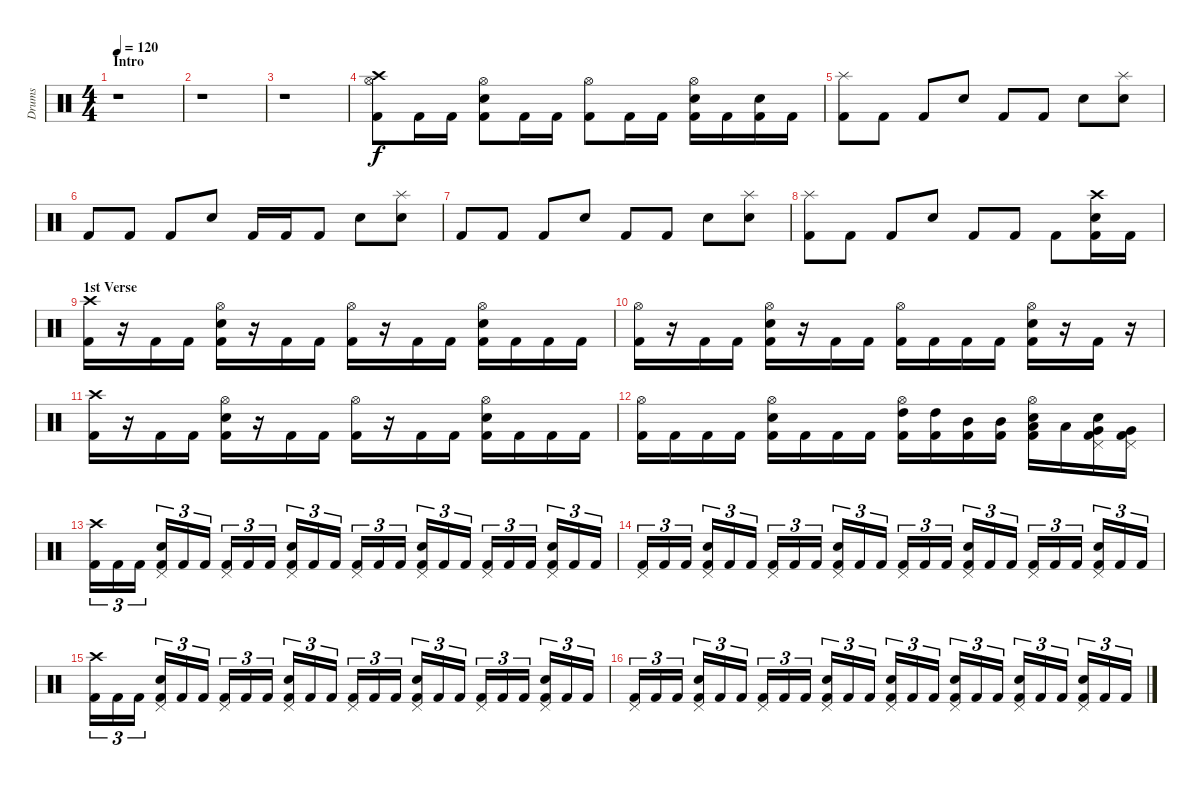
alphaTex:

\track ("Drums" "Drums") {instrument percussion}
\staff {score}
\articulation defaults
\ts (4 4)
\section ("" "Intro")
\tempo 120
\clef neutral
\ks c
r.1{dy f} |
r.1 |
r.1 |
("Crash high (hit)" "Hi-Hat (open)" "Kick (hit) 2").8 "Kick (hit) 2".16 "Kick (hit) 2".16 ("Hi-Hat (open)" "Electric Snare (hit)" "Kick (hit) 2").8 "Kick (hit) 2".16 "Kick (hit) 2".16 ("Hi-Hat (open)" "Kick (hit) 2").8 "Kick (hit) 2".16 "Kick (hit) 2".16 ("Hi-Hat (open)" "Electric Snare (hit)" "Kick (hit) 2").16 "Kick (hit) 2".16 ("Electric Snare (hit)" "Kick (hit) 2").16 "Kick (hit) 2".16 |
("Splash (hit)" "Kick (hit) 2").8 "Kick (hit) 2".8 "Kick (hit) 2".8 "Electric Snare (hit)".8 "Kick (hit) 2".8 "Kick (hit) 2".8 "Electric Snare (hit)".8 ("Splash (hit)" "Electric Snare (hit)").8 |
"Kick (hit) 2".8 "Kick (hit) 2".8 "Kick (hit) 2".8 "Electric Snare (hit)".8 "Kick (hit) 2".16 "Kick (hit) 2".16 "Kick (hit) 2".8 "Electric Snare (hit)".8 ("Splash (hit)" "Electric Snare (hit)").8 |
"Kick (hit) 2".8 "Kick (hit) 2".8 "Kick (hit) 2".8 "Electric Snare (hit)".8 "Kick (hit) 2".8 "Kick (hit) 2".8 "Electric Snare (hit)".8 ("Splash (hit)" "Electric Snare (hit)").8 |
("Splash (hit)" "Kick (hit) 2").8 "Kick (hit) 2".8 "Kick (hit) 2".8 "Electric Snare (hit)".8 "Kick (hit) 2".8 "Kick (hit) 2".8 "Kick (hit) 2".8 ("Crash high (hit)" "Electric Snare (hit)" "Kick (hit) 2").16 "Kick (hit) 2".16 |
\section ("" "1st Verse")
("Crash high (hit)" "Kick (hit) 2").16 r.16 "Kick (hit) 2".16 "Kick (hit) 2".16 ("Hi-Hat (open)" "Electric Snare (hit)" "Kick (hit) 2").16 r.16 "Kick (hit) 2".16 "Kick (hit) 2".16 ("Hi-Hat (open)" "Kick (hit) 2").16 r.16 "Kick (hit) 2".16 "Kick (hit) 2".16 ("Hi-Hat (open)" "Electric Snare (hit)" "Kick (hit) 2").16 "Kick (hit) 2".16 "Kick (hit) 2".16 "Kick (hit) 2".16 |
("Hi-Hat (open)" "Kick (hit) 2").16 r.16 "Kick (hit) 2".16 "Kick (hit) 2".16 ("Hi-Hat (open)" "Electric Snare (hit)" "Kick (hit) 2").16 r.16 "Kick (hit) 2".16 "Kick (hit) 2".16 ("Hi-Hat (open)" "Kick (hit) 2").16 "Kick (hit) 2".16 "Kick (hit) 2".16 "Kick (hit) 2".16 ("Hi-Hat (open)" "Electric Snare (hit)" "Kick (hit) 2").16 r.16 "Kick (hit) 2".16 r.16 |
("Crash high (hit)" "Kick (hit) 2").16 r.16 "Kick (hit) 2".16 "Kick (hit) 2".16 ("Hi-Hat (open)" "Electric Snare (hit)" "Kick (hit) 2").16 r.16 "Kick (hit) 2".16 "Kick (hit) 2".16 ("Hi-Hat (open)" "Kick (hit) 2").16 r.16 "Kick (hit) 2".16 "Kick (hit) 2".16 ("Hi-Hat (open)" "Electric Snare (hit)" "Kick (hit) 2").16 "Kick (hit) 2".16 "Kick (hit) 2".16 "Kick (hit) 2".16 |
("Hi-Hat (open)" "Kick (hit) 2").16 "Kick (hit) 2".16 "Kick (hit) 2".16 "Kick (hit) 2".16 ("Hi-Hat (open)" "Electric Snare (hit)" "Kick (hit) 2").16 "Kick (hit) 2".16 "Kick (hit) 2".16 "Kick (hit) 2".16 ("Hi-Hat (open)" "High Tom (hit)" "Kick (hit) 2").16 ("High Tom (hit)" "Kick (hit) 2").16 ("Mid Tom (hit)" "Kick (hit) 2").16 ("Mid Tom (hit)" "Kick (hit) 2").16 ("Hi-Hat (open)" "Electric Snare (hit)" "Low Tom (hit)" "Kick (hit) 2").16 "Low Tom (hit)".16 ("Pedal Hi-Hat (hit)" "Electric Snare (hit)" "Very Low Tom (hit)" "Kick (hit) 2").16 ("Pedal Hi-Hat (hit)" "Very Low Tom (hit)" "Kick (hit) 2").16 |
("Crash high (hit)" "Kick (hit) 2").16{tu (3 2)} "Kick (hit) 2".16{tu (3 2)} "Kick (hit) 2".16{tu (3 2)} ("Pedal Hi-Hat (hit)" "Electric Snare (hit)" "Kick (hit) 2").16{tu (3 2)} "Kick (hit) 2".16{tu (3 2)} "Kick (hit) 2".16{tu (3 2)} ("Pedal Hi-Hat (hit)" "Kick (hit) 2").16{tu (3 2)} "Kick (hit) 2".16{tu (3 2)} "Kick (hit) 2".16{tu (3 2)} ("Pedal Hi-Hat (hit)" "Electric Snare (hit)" "Kick (hit) 2").16{tu (3 2)} "Kick (hit) 2".16{tu (3 2)} "Kick (hit) 2".16{tu (3 2)} ("Pedal Hi-Hat (hit)" "Kick (hit) 2").16{tu (3 2)} "Kick (hit) 2".16{tu (3 2)} "Kick (hit) 2".16{tu (3 2)} ("Pedal Hi-Hat (hit)" "Electric Snare (hit)" "Kick (hit) 2").16{tu (3 2)} "Kick (hit) 2".16{tu (3 2)} "Kick (hit) 2".16{tu (3 2)} ("Pedal Hi-Hat (hit)" "Kick (hit) 2").16{tu (3 2)} "Kick (hit) 2".16{tu (3 2)} "Kick (hit) 2".16{tu (3 2)} ("Pedal Hi-Hat (hit)" "Electric Snare (hit)" "Kick (hit) 2").16{tu (3 2)} "Kick (hit) 2".16{tu (3 2)} "Kick (hit) 2".16{tu (3 2)} |
("Pedal Hi-Hat (hit)" "Kick (hit) 2").16{tu (3 2)} "Kick (hit) 2".16{tu (3 2)} "Kick (hit) 2".16{tu (3 2)} ("Pedal Hi-Hat (hit)" "Electric Snare (hit)" "Kick (hit) 2").16{tu (3 2)} "Kick (hit) 2".16{tu (3 2)} "Kick (hit) 2".16{tu (3 2)} ("Pedal Hi-Hat (hit)" "Kick (hit) 2").16{tu (3 2)} "Kick (hit) 2".16{tu (3 2)} "Kick (hit) 2".16{tu (3 2)} ("Pedal Hi-Hat (hit)" "Electric Snare (hit)" "Kick (hit) 2").16{tu (3 2)} "Kick (hit) 2".16{tu (3 2)} "Kick (hit) 2".16{tu (3 2)} ("Pedal Hi-Hat (hit)" "Kick (hit) 2").16{tu (3 2)} "Kick (hit) 2".16{tu (3 2)} "Kick (hit) 2".16{tu (3 2)} ("Pedal Hi-Hat (hit)" "Electric Snare (hit)" "Kick (hit) 2").16{tu (3 2)} "Kick (hit) 2".16{tu (3 2)} "Kick (hit) 2".16{tu (3 2)} ("Pedal Hi-Hat (hit)" "Kick (hit) 2").16{tu (3 2)} "Kick (hit) 2".16{tu (3 2)} "Kick (hit) 2".16{tu (3 2)} ("Pedal Hi-Hat (hit)" "Electric Snare (hit)" "Kick (hit) 2").16{tu (3 2)} "Kick (hit) 2".16{tu (3 2)} "Kick (hit) 2".16{tu (3 2)} |
("Crash high (hit)" "Kick (hit) 2").16{tu (3 2)} "Kick (hit) 2".16{tu (3 2)} "Kick (hit) 2".16{tu (3 2)} ("Pedal Hi-Hat (hit)" "Electric Snare (hit)" "Kick (hit) 2").16{tu (3 2)} "Kick (hit) 2".16{tu (3 2)} "Kick (hit) 2".16{tu (3 2)} ("Pedal Hi-Hat (hit)" "Kick (hit) 2").16{tu (3 2)} "Kick (hit) 2".16{tu (3 2)} "Kick (hit) 2".16{tu (3 2)} ("Pedal Hi-Hat (hit)" "Electric Snare (hit)" "Kick (hit) 2").16{tu (3 2)} "Kick (hit) 2".16{tu (3 2)} "Kick (hit) 2".16{tu (3 2)} ("Pedal Hi-Hat (hit)" "Kick (hit) 2").16{tu (3 2)} "Kick (hit) 2".16{tu (3 2)} "Kick (hit) 2".16{tu (3 2)} ("Pedal Hi-Hat (hit)" "Electric Snare (hit)" "Kick (hit) 2").16{tu (3 2)} "Kick (hit) 2".16{tu (3 2)} "Kick (hit) 2".16{tu (3 2)} ("Pedal Hi-Hat (hit)" "Kick (hit) 2").16{tu (3 2)} "Kick (hit) 2".16{tu (3 2)} "Kick (hit) 2".16{tu (3 2)} ("Pedal Hi-Hat (hit)" "Electric Snare (hit)" "Kick (hit) 2").16{tu (3 2)} "Kick (hit) 2".16{tu (3 2)} "Kick (hit) 2".16{tu (3 2)} |
("Pedal Hi-Hat (hit)" "Kick (hit) 2").16{tu (3 2)} "Kick (hit) 2".16{tu (3 2)} "Kick (hit) 2".16{tu (3 2)} ("Pedal Hi-Hat (hit)" "Electric Snare (hit)" "Kick (hit) 2").16{tu (3 2)} "Kick (hit) 2".16{tu (3 2)} "Kick (hit) 2".16{tu (3 2)} ("Pedal Hi-Hat (hit)" "Kick (hit) 2").16{tu (3 2)} "Kick (hit) 2".16{tu (3 2)} "Kick (hit) 2".16{tu (3 2)} ("Pedal Hi-Hat (hit)" "Electric Snare (hit)" "Kick (hit) 2").16{tu (3 2)} "Kick (hit) 2".16{tu (3 2)} "Kick (hit) 2".16{tu (3 2)} ("Pedal Hi-Hat (hit)" "Electric Snare (hit)" "Kick (hit) 2").16{tu (3 2)} "Kick (hit) 2".16{tu (3 2)} "Kick (hit) 2".16{tu (3 2)} ("Pedal Hi-Hat (hit)" "Electric Snare (hit)" "Kick (hit) 2").16{tu (3 2)} "Kick (hit) 2".16{tu (3 2)} "Kick (hit) 2".16{tu (3 2)} ("Pedal Hi-Hat (hit)" "Electric Snare (hit)" "Kick (hit) 2").16{tu (3 2)} "Kick (hit) 2".16{tu (3 2)} "Kick (hit) 2".16{tu (3 2)} ("Pedal Hi-Hat (hit)" "Electric Snare (hit)" "Kick (hit) 2").16{tu (3 2)} "Kick (hit) 2".16{tu (3 2)} "Kick (hit) 2".16{tu (3 2)}
